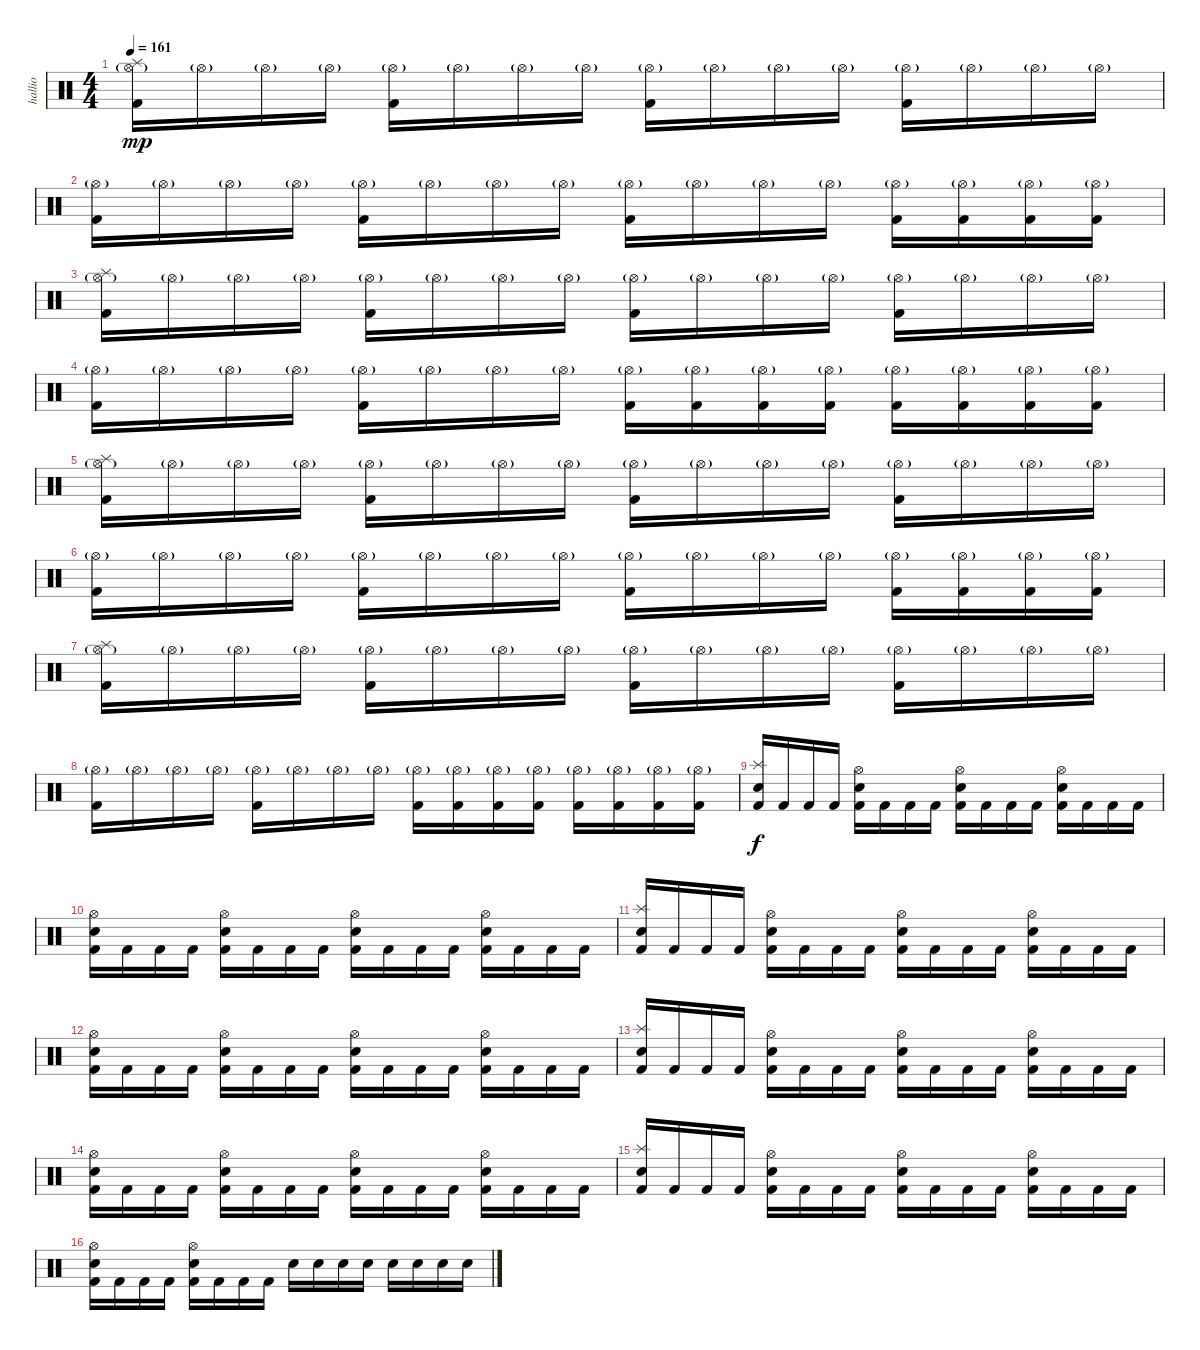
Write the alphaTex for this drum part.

\track ("hallio" "hallio") {instrument percussion}
\staff {score}
\articulation defaults
\ts (4 4)
\tempo 161
\clef neutral
\ks c
("Hi-Hat (open)"{g} "Kick (hit) 2" "Splash (hit)").16{dy mp volume 13} "Hi-Hat (open)"{g}.16 "Hi-Hat (open)"{g}.16 "Hi-Hat (open)"{g}.16 ("Hi-Hat (open)"{g} "Kick (hit) 2").16 "Hi-Hat (open)"{g}.16 "Hi-Hat (open)"{g}.16 "Hi-Hat (open)"{g}.16 ("Hi-Hat (open)"{g} "Kick (hit) 2").16 "Hi-Hat (open)"{g}.16 "Hi-Hat (open)"{g}.16 "Hi-Hat (open)"{g}.16 ("Hi-Hat (open)"{g} "Kick (hit) 2").16 "Hi-Hat (open)"{g}.16 "Hi-Hat (open)"{g}.16 "Hi-Hat (open)"{g}.16 |
("Hi-Hat (open)"{g} "Kick (hit) 2").16 "Hi-Hat (open)"{g}.16 "Hi-Hat (open)"{g}.16 "Hi-Hat (open)"{g}.16 ("Hi-Hat (open)"{g} "Kick (hit) 2").16 "Hi-Hat (open)"{g}.16 "Hi-Hat (open)"{g}.16 "Hi-Hat (open)"{g}.16 ("Hi-Hat (open)"{g} "Kick (hit) 2").16 "Hi-Hat (open)"{g}.16 "Hi-Hat (open)"{g}.16 "Hi-Hat (open)"{g}.16 ("Hi-Hat (open)"{g} "Kick (hit) 2").16 ("Hi-Hat (open)"{g} "Kick (hit) 2").16 ("Hi-Hat (open)"{g} "Kick (hit) 2").16 ("Hi-Hat (open)"{g} "Kick (hit) 2").16 |
("Hi-Hat (open)"{g} "Kick (hit) 2" "Splash (hit)").16 "Hi-Hat (open)"{g}.16 "Hi-Hat (open)"{g}.16 "Hi-Hat (open)"{g}.16 ("Hi-Hat (open)"{g} "Kick (hit) 2").16 "Hi-Hat (open)"{g}.16 "Hi-Hat (open)"{g}.16 "Hi-Hat (open)"{g}.16 ("Hi-Hat (open)"{g} "Kick (hit) 2").16 "Hi-Hat (open)"{g}.16 "Hi-Hat (open)"{g}.16 "Hi-Hat (open)"{g}.16 ("Hi-Hat (open)"{g} "Kick (hit) 2").16 "Hi-Hat (open)"{g}.16 "Hi-Hat (open)"{g}.16 "Hi-Hat (open)"{g}.16 |
("Hi-Hat (open)"{g} "Kick (hit) 2").16 "Hi-Hat (open)"{g}.16 "Hi-Hat (open)"{g}.16 "Hi-Hat (open)"{g}.16 ("Hi-Hat (open)"{g} "Kick (hit) 2").16 "Hi-Hat (open)"{g}.16 "Hi-Hat (open)"{g}.16 "Hi-Hat (open)"{g}.16 ("Hi-Hat (open)"{g} "Kick (hit) 2").16 ("Hi-Hat (open)"{g} "Kick (hit) 2").16 ("Hi-Hat (open)"{g} "Kick (hit) 2").16 ("Hi-Hat (open)"{g} "Kick (hit) 2").16 ("Hi-Hat (open)"{g} "Kick (hit) 2").16 ("Hi-Hat (open)"{g} "Kick (hit) 2").16 ("Hi-Hat (open)"{g} "Kick (hit) 2").16 ("Hi-Hat (open)"{g} "Kick (hit) 2").16 |
("Hi-Hat (open)"{g} "Kick (hit) 2" "Splash (hit)").16 "Hi-Hat (open)"{g}.16 "Hi-Hat (open)"{g}.16 "Hi-Hat (open)"{g}.16 ("Hi-Hat (open)"{g} "Kick (hit) 2").16 "Hi-Hat (open)"{g}.16 "Hi-Hat (open)"{g}.16 "Hi-Hat (open)"{g}.16 ("Hi-Hat (open)"{g} "Kick (hit) 2").16 "Hi-Hat (open)"{g}.16 "Hi-Hat (open)"{g}.16 "Hi-Hat (open)"{g}.16 ("Hi-Hat (open)"{g} "Kick (hit) 2").16 "Hi-Hat (open)"{g}.16 "Hi-Hat (open)"{g}.16 "Hi-Hat (open)"{g}.16 |
("Hi-Hat (open)"{g} "Kick (hit) 2").16 "Hi-Hat (open)"{g}.16 "Hi-Hat (open)"{g}.16 "Hi-Hat (open)"{g}.16 ("Hi-Hat (open)"{g} "Kick (hit) 2").16 "Hi-Hat (open)"{g}.16 "Hi-Hat (open)"{g}.16 "Hi-Hat (open)"{g}.16 ("Hi-Hat (open)"{g} "Kick (hit) 2").16 "Hi-Hat (open)"{g}.16 "Hi-Hat (open)"{g}.16 "Hi-Hat (open)"{g}.16 ("Hi-Hat (open)"{g} "Kick (hit) 2").16 ("Hi-Hat (open)"{g} "Kick (hit) 2").16 ("Hi-Hat (open)"{g} "Kick (hit) 2").16 ("Hi-Hat (open)"{g} "Kick (hit) 2").16 |
("Hi-Hat (open)"{g} "Kick (hit) 2" "Splash (hit)").16 "Hi-Hat (open)"{g}.16 "Hi-Hat (open)"{g}.16 "Hi-Hat (open)"{g}.16 ("Hi-Hat (open)"{g} "Kick (hit) 2").16 "Hi-Hat (open)"{g}.16 "Hi-Hat (open)"{g}.16 "Hi-Hat (open)"{g}.16 ("Hi-Hat (open)"{g} "Kick (hit) 2").16 "Hi-Hat (open)"{g}.16 "Hi-Hat (open)"{g}.16 "Hi-Hat (open)"{g}.16 ("Hi-Hat (open)"{g} "Kick (hit) 2").16 "Hi-Hat (open)"{g}.16 "Hi-Hat (open)"{g}.16 "Hi-Hat (open)"{g}.16 |
("Hi-Hat (open)"{g} "Kick (hit) 2").16 "Hi-Hat (open)"{g}.16 "Hi-Hat (open)"{g}.16 "Hi-Hat (open)"{g}.16 ("Hi-Hat (open)"{g} "Kick (hit) 2").16 "Hi-Hat (open)"{g}.16 "Hi-Hat (open)"{g}.16 "Hi-Hat (open)"{g}.16 ("Hi-Hat (open)"{g} "Kick (hit) 2").16 ("Hi-Hat (open)"{g} "Kick (hit) 2").16 ("Hi-Hat (open)"{g} "Kick (hit) 2").16 ("Hi-Hat (open)"{g} "Kick (hit) 2").16 ("Hi-Hat (open)"{g} "Kick (hit) 2").16 ("Hi-Hat (open)"{g} "Kick (hit) 2").16 ("Hi-Hat (open)"{g} "Kick (hit) 2").16 ("Hi-Hat (open)"{g} "Kick (hit) 2").16 |
("Kick (hit) 2" "Snare (hit) 2" "Splash (hit)").16{dy f} "Kick (hit) 2".16 "Kick (hit) 2".16 "Kick (hit) 2".16 ("Kick (hit) 2" "Snare (hit) 2" "Hi-Hat (open)").16 "Kick (hit) 2".16 "Kick (hit) 2".16 "Kick (hit) 2".16 ("Kick (hit) 2" "Snare (hit) 2" "Hi-Hat (open)").16 "Kick (hit) 2".16 "Kick (hit) 2".16 "Kick (hit) 2".16 ("Kick (hit) 2" "Snare (hit) 2" "Hi-Hat (open)").16 "Kick (hit) 2".16 "Kick (hit) 2".16 "Kick (hit) 2".16 |
("Kick (hit) 2" "Snare (hit) 2" "Hi-Hat (open)").16 "Kick (hit) 2".16 "Kick (hit) 2".16 "Kick (hit) 2".16 ("Kick (hit) 2" "Snare (hit) 2" "Hi-Hat (open)").16 "Kick (hit) 2".16 "Kick (hit) 2".16 "Kick (hit) 2".16 ("Kick (hit) 2" "Snare (hit) 2" "Hi-Hat (open)").16 "Kick (hit) 2".16 "Kick (hit) 2".16 "Kick (hit) 2".16 ("Kick (hit) 2" "Snare (hit) 2" "Hi-Hat (open)").16 "Kick (hit) 2".16 "Kick (hit) 2".16 "Kick (hit) 2".16 |
("Kick (hit) 2" "Snare (hit) 2" "Splash (hit)").16 "Kick (hit) 2".16 "Kick (hit) 2".16 "Kick (hit) 2".16 ("Kick (hit) 2" "Snare (hit) 2" "Hi-Hat (open)").16 "Kick (hit) 2".16 "Kick (hit) 2".16 "Kick (hit) 2".16 ("Kick (hit) 2" "Snare (hit) 2" "Hi-Hat (open)").16 "Kick (hit) 2".16 "Kick (hit) 2".16 "Kick (hit) 2".16 ("Kick (hit) 2" "Snare (hit) 2" "Hi-Hat (open)").16 "Kick (hit) 2".16 "Kick (hit) 2".16 "Kick (hit) 2".16 |
("Kick (hit) 2" "Snare (hit) 2" "Hi-Hat (open)").16 "Kick (hit) 2".16 "Kick (hit) 2".16 "Kick (hit) 2".16 ("Kick (hit) 2" "Snare (hit) 2" "Hi-Hat (open)").16 "Kick (hit) 2".16 "Kick (hit) 2".16 "Kick (hit) 2".16 ("Kick (hit) 2" "Snare (hit) 2" "Hi-Hat (open)").16 "Kick (hit) 2".16 "Kick (hit) 2".16 "Kick (hit) 2".16 ("Kick (hit) 2" "Snare (hit) 2" "Hi-Hat (open)").16 "Kick (hit) 2".16 "Kick (hit) 2".16 "Kick (hit) 2".16 |
("Kick (hit) 2" "Snare (hit) 2" "Splash (hit)").16 "Kick (hit) 2".16 "Kick (hit) 2".16 "Kick (hit) 2".16 ("Kick (hit) 2" "Snare (hit) 2" "Hi-Hat (open)").16 "Kick (hit) 2".16 "Kick (hit) 2".16 "Kick (hit) 2".16 ("Kick (hit) 2" "Snare (hit) 2" "Hi-Hat (open)").16 "Kick (hit) 2".16 "Kick (hit) 2".16 "Kick (hit) 2".16 ("Kick (hit) 2" "Snare (hit) 2" "Hi-Hat (open)").16 "Kick (hit) 2".16 "Kick (hit) 2".16 "Kick (hit) 2".16 |
("Kick (hit) 2" "Snare (hit) 2" "Hi-Hat (open)").16 "Kick (hit) 2".16 "Kick (hit) 2".16 "Kick (hit) 2".16 ("Kick (hit) 2" "Snare (hit) 2" "Hi-Hat (open)").16 "Kick (hit) 2".16 "Kick (hit) 2".16 "Kick (hit) 2".16 ("Kick (hit) 2" "Snare (hit) 2" "Hi-Hat (open)").16 "Kick (hit) 2".16 "Kick (hit) 2".16 "Kick (hit) 2".16 ("Kick (hit) 2" "Snare (hit) 2" "Hi-Hat (open)").16 "Kick (hit) 2".16 "Kick (hit) 2".16 "Kick (hit) 2".16 |
("Kick (hit) 2" "Snare (hit) 2" "Splash (hit)").16 "Kick (hit) 2".16 "Kick (hit) 2".16 "Kick (hit) 2".16 ("Kick (hit) 2" "Snare (hit) 2" "Hi-Hat (open)").16 "Kick (hit) 2".16 "Kick (hit) 2".16 "Kick (hit) 2".16 ("Kick (hit) 2" "Snare (hit) 2" "Hi-Hat (open)").16 "Kick (hit) 2".16 "Kick (hit) 2".16 "Kick (hit) 2".16 ("Kick (hit) 2" "Snare (hit) 2" "Hi-Hat (open)").16 "Kick (hit) 2".16 "Kick (hit) 2".16 "Kick (hit) 2".16 |
("Kick (hit) 2" "Snare (hit) 2" "Hi-Hat (open)").16 "Kick (hit) 2".16 "Kick (hit) 2".16 "Kick (hit) 2".16 ("Kick (hit) 2" "Snare (hit) 2" "Hi-Hat (open)").16 "Kick (hit) 2".16 "Kick (hit) 2".16 "Kick (hit) 2".16 "Snare (hit) 2".16 "Snare (hit) 2".16 "Snare (hit) 2".16 "Snare (hit) 2".16 "Snare (hit) 2".16 "Snare (hit) 2".16 "Snare (hit) 2".16 "Snare (hit) 2".16
